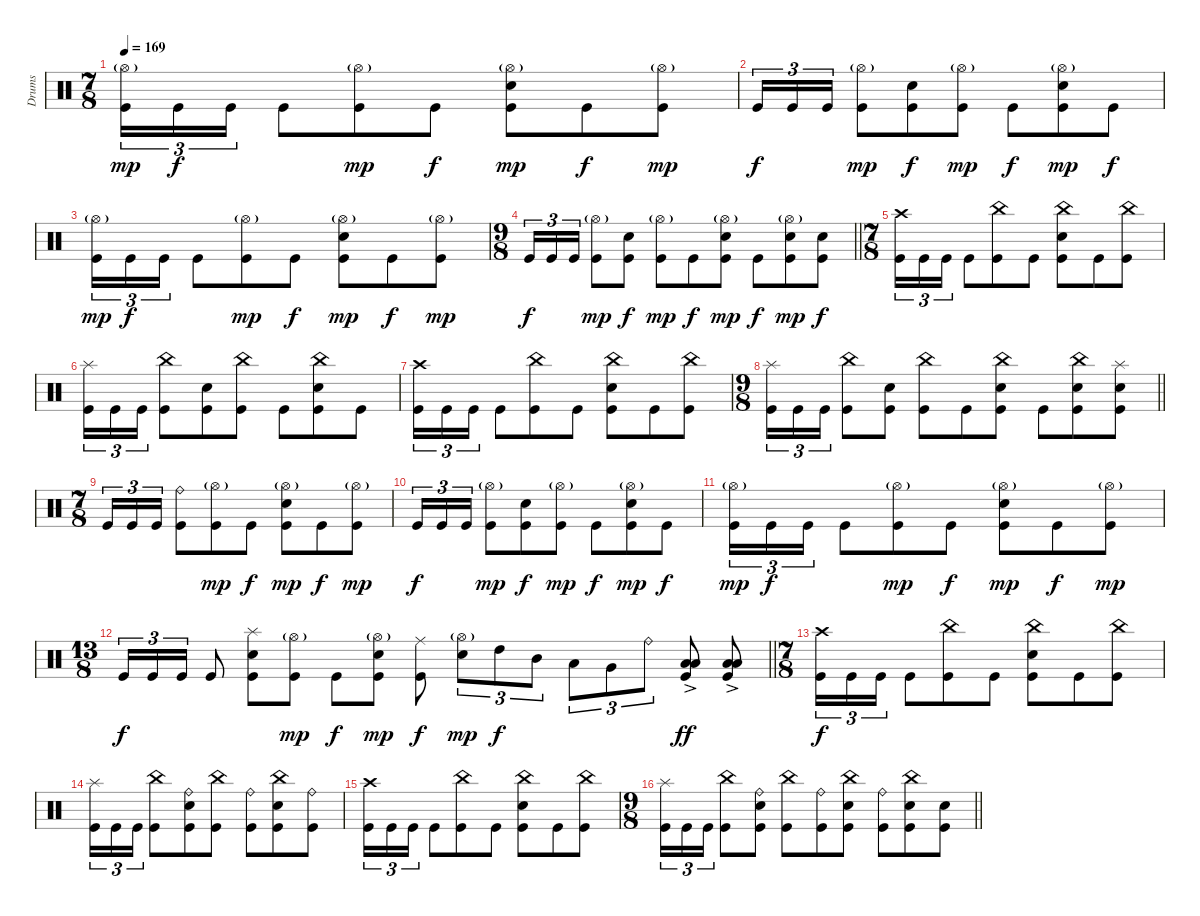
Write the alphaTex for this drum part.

\track ("Drums" "Drums") {instrument percussion}
\staff
\articulation defaults
\ts (7 8)
\section ("" "")
\tempo 169
\clef neutral
\ks c
("Hi-Hat (open)"{g} "Kick (hit)").16{tu (3 2) dy mp} "Kick (hit)".16{tu (3 2) dy f} "Kick (hit)".16{tu (3 2)} "Kick (hit)".8 ("Hi-Hat (open)"{g} "Kick (hit)").8{dy mp} "Kick (hit)".8{dy f} ("Hi-Hat (open)"{g} "Electric Snare (hit)" "Kick (hit)").8{dy mp} "Kick (hit)".8{dy f} ("Hi-Hat (open)"{g} "Kick (hit)").8{dy mp} |
"Kick (hit)".16{tu (3 2) dy f} "Kick (hit)".16{tu (3 2)} "Kick (hit)".16{tu (3 2)} ("Hi-Hat (open)"{g} "Kick (hit)").8{dy mp} ("Electric Snare (hit)" "Kick (hit)").8{dy f} ("Hi-Hat (open)"{g} "Kick (hit)").8{dy mp} "Kick (hit)".8{dy f} ("Hi-Hat (open)"{g} "Electric Snare (hit)" "Kick (hit)").8{dy mp} "Kick (hit)".8{dy f} |
("Hi-Hat (open)"{g} "Kick (hit)").16{tu (3 2) dy mp} "Kick (hit)".16{tu (3 2) dy f} "Kick (hit)".16{tu (3 2)} "Kick (hit)".8 ("Hi-Hat (open)"{g} "Kick (hit)").8{dy mp} "Kick (hit)".8{dy f} ("Hi-Hat (open)"{g} "Electric Snare (hit)" "Kick (hit)").8{dy mp} "Kick (hit)".8{dy f} ("Hi-Hat (open)"{g} "Kick (hit)").8{dy mp} |
\ts (9 8)
\barLineRight lightlight "Kick (hit)".16{tu (3 2) dy f} "Kick (hit)".16{tu (3 2)} "Kick (hit)".16{tu (3 2)}
("Hi-Hat (open)"{g} "Kick (hit)").8{dy mp} ("Electric Snare (hit)" "Kick (hit)").8{dy f} ("Hi-Hat (open)"{g} "Kick (hit)").8{dy mp} "Kick (hit)".8{dy f} ("Hi-Hat (open)"{g} "Electric Snare (hit)" "Kick (hit)").8{dy mp} "Kick (hit)".8{dy f} ("Hi-Hat (open)"{g} "Electric Snare (hit)" "Kick (hit)").8{dy mp} ("Electric Snare (hit)" "Kick (hit)").8{dy f} |
\ts (7 8)
("Crash high (hit)" "Kick (hit)").16{tu (3 2)} "Kick (hit)".16{tu (3 2)} "Kick (hit)".16{tu (3 2)} "Kick (hit)".8 ("China (hit)" "Kick (hit)").8 "Kick (hit)".8 ("China (hit)" "Electric Snare (hit)" "Kick (hit)").8 "Kick (hit)".8 ("China (hit)" "Kick (hit)").8 |
("Splash (hit)" "Kick (hit)").16{tu (3 2)} "Kick (hit)".16{tu (3 2)} "Kick (hit)".16{tu (3 2)} ("China (hit)" "Kick (hit)").8 ("Electric Snare (hit)" "Kick (hit)").8 ("China (hit)" "Kick (hit)").8 "Kick (hit)".8 ("China (hit)" "Electric Snare (hit)" "Kick (hit)").8 "Kick (hit)".8 |
("Crash high (hit)" "Kick (hit)").16{tu (3 2)} "Kick (hit)".16{tu (3 2)} "Kick (hit)".16{tu (3 2)} "Kick (hit)".8 ("China (hit)" "Kick (hit)").8 "Kick (hit)".8 ("China (hit)" "Electric Snare (hit)" "Kick (hit)").8 "Kick (hit)".8 ("China (hit)" "Kick (hit)").8 |
\ts (9 8)
\barLineRight lightlight
("Splash (hit)" "Kick (hit)").16{tu (3 2)} "Kick (hit)".16{tu (3 2)} "Kick (hit)".16{tu (3 2)} ("China (hit)" "Kick (hit)").8 ("Electric Snare (hit)" "Kick (hit)").8 ("China (hit)" "Kick (hit)").8 "Kick (hit)".8 ("China (hit)" "Electric Snare (hit)" "Kick (hit)").8 "Kick (hit)".8 ("China (hit)" "Electric Snare (hit)" "Kick (hit)").8 ("Splash (hit)" "Electric Snare (hit)" "Kick (hit)").8 |
\ts (7 8)
"Kick (hit)".16{tu (3 2)} "Kick (hit)".16{tu (3 2)} "Kick (hit)".16{tu (3 2)} ("Ride (bell)" "Kick (hit)").8 ("Hi-Hat (open)"{g} "Kick (hit)").8{dy mp} "Kick (hit)".8{dy f} ("Hi-Hat (open)"{g} "Electric Snare (hit)" "Kick (hit)").8{dy mp} "Kick (hit)".8{dy f} ("Hi-Hat (open)"{g} "Kick (hit)").8{dy mp} |
"Kick (hit)".16{tu (3 2) dy f} "Kick (hit)".16{tu (3 2)} "Kick (hit)".16{tu (3 2)} ("Hi-Hat (open)"{g} "Kick (hit)").8{dy mp} ("Electric Snare (hit)" "Kick (hit)").8{dy f} ("Hi-Hat (open)"{g} "Kick (hit)").8{dy mp} "Kick (hit)".8{dy f} ("Hi-Hat (open)"{g} "Electric Snare (hit)" "Kick (hit)").8{dy mp} "Kick (hit)".8{dy f} |
("Hi-Hat (open)"{g} "Kick (hit)").16{tu (3 2) dy mp} "Kick (hit)".16{tu (3 2) dy f} "Kick (hit)".16{tu (3 2)} "Kick (hit)".8 ("Hi-Hat (open)"{g} "Kick (hit)").8{dy mp} "Kick (hit)".8{dy f} ("Hi-Hat (open)"{g} "Electric Snare (hit)" "Kick (hit)").8{dy mp} "Kick (hit)".8{dy f} ("Hi-Hat (open)"{g} "Kick (hit)").8{dy mp} |
\ts (13 8)
\barLineRight lightlight "Kick (hit)".16{tu (3 2) dy f} "Kick (hit)".16{tu (3 2)} "Kick (hit)".16{tu (3 2)} "Kick (hit)".8
("Splash (hit)" "Electric Snare (hit)" "Kick (hit)").8 ("Hi-Hat (open)"{g} "Kick (hit)").8{dy mp} "Kick (hit)".8{dy f} ("Hi-Hat (open)"{g} "Electric Snare (hit)" "Kick (hit)").8{dy mp} ("Ride (middle)" "Kick (hit)").8{dy f} ("Hi-Hat (open)"{g} "Electric Snare (hit)").8{tu (3 2) dy mp} "High Tom (hit)".8{tu (3 2) dy f} "Mid Tom (hit)".8{tu (3 2)} "Low Tom (hit)".8{tu (3 2)} "Very Low Tom (hit)".8{tu (3 2)} "Ride (bell)".8{tu (3 2)} ("Low Floor Tom (hit)"{ac} "Low Floor Tom (hit)"{ac} "Kick (hit)").8{dy ff} ("Low Floor Tom (hit)"{ac} "Low Floor Tom (hit)"{ac} "Kick (hit)").8 |
\ts (7 8)
("Crash high (hit)" "Kick (hit)").16{tu (3 2) dy f} "Kick (hit)".16{tu (3 2)} "Kick (hit)".16{tu (3 2)} "Kick (hit)".8 ("China (hit)" "Kick (hit)").8 "Kick (hit)".8 ("China (hit)" "Electric Snare (hit)" "Kick (hit)").8 "Kick (hit)".8 ("China (hit)" "Kick (hit)").8 |
("Splash (hit)" "Kick (hit)").16{tu (3 2)} "Kick (hit)".16{tu (3 2)} "Kick (hit)".16{tu (3 2)} ("China (hit)" "Kick (hit)").8 ("Ride (bell)" "Electric Snare (hit)" "Kick (hit)").8 ("China (hit)" "Kick (hit)").8 ("Ride (bell)" "Kick (hit)").8 ("China (hit)" "Electric Snare (hit)" "Kick (hit)").8 ("Ride (bell)" "Kick (hit)").8 |
("Crash high (hit)" "Kick (hit)").16{tu (3 2)} "Kick (hit)".16{tu (3 2)} "Kick (hit)".16{tu (3 2)} "Kick (hit)".8 ("China (hit)" "Kick (hit)").8 "Kick (hit)".8 ("China (hit)" "Electric Snare (hit)" "Kick (hit)").8 "Kick (hit)".8 ("China (hit)" "Kick (hit)").8 |
\ts (9 8)
\barLineRight lightlight
("Splash (hit)" "Kick (hit)").16{tu (3 2)} "Kick (hit)".16{tu (3 2)} "Kick (hit)".16{tu (3 2)} ("China (hit)" "Kick (hit)").8 ("Ride (bell)" "Electric Snare (hit)" "Kick (hit)").8 ("China (hit)" "Kick (hit)").8 ("Ride (bell)" "Kick (hit)").8 ("China (hit)" "Electric Snare (hit)" "Kick (hit)").8 ("Ride (bell)" "Kick (hit)").8 ("China (hit)" "Electric Snare (hit)" "Kick (hit)").8 ("Electric Snare (hit)" "Kick (hit)").8
